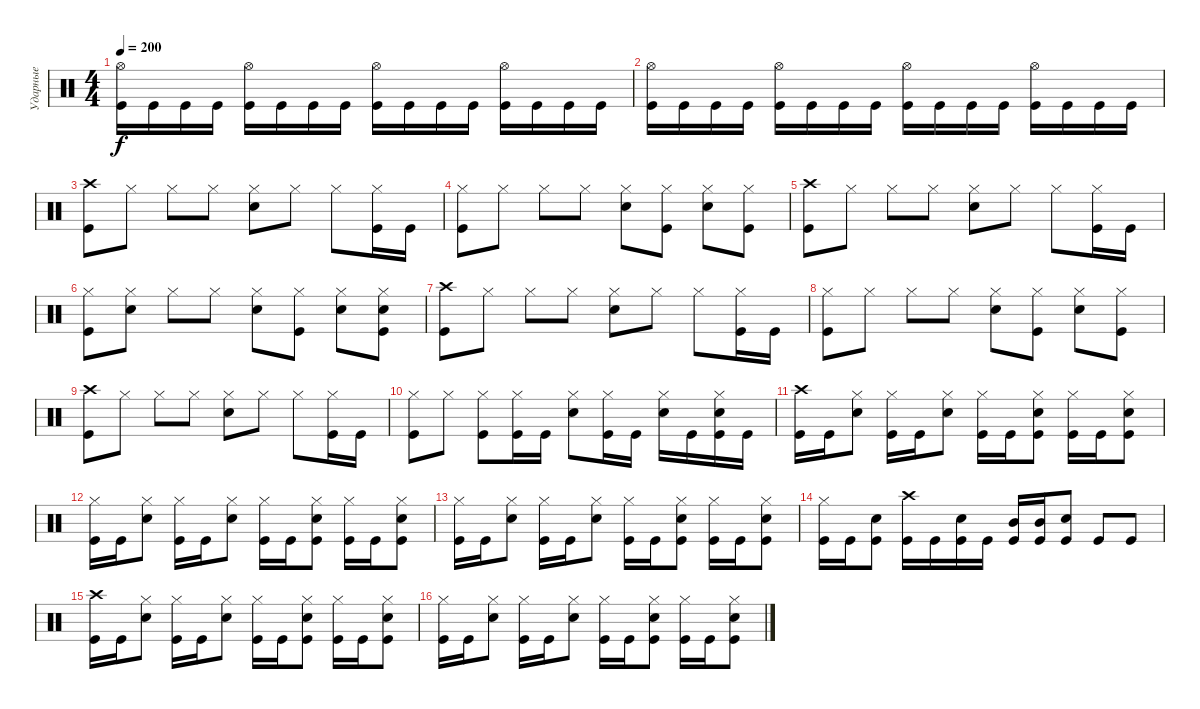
\track ("Ударные" "Ударные") {instrument percussion}
\staff {score}
\articulation defaults
\ts (4 4)
\tempo 200
\clef neutral
\ks c
("Hi-Hat (open)" "Kick (hit)").16{dy f} "Kick (hit)".16 "Kick (hit)".16 "Kick (hit)".16 ("Hi-Hat (open)" "Kick (hit)").16 "Kick (hit)".16 "Kick (hit)".16 "Kick (hit)".16 ("Hi-Hat (open)" "Kick (hit)").16 "Kick (hit)".16 "Kick (hit)".16 "Kick (hit)".16 ("Hi-Hat (open)" "Kick (hit)").16 "Kick (hit)".16 "Kick (hit)".16 "Kick (hit)".16 |
("Hi-Hat (open)" "Kick (hit)").16 "Kick (hit)".16 "Kick (hit)".16 "Kick (hit)".16 ("Hi-Hat (open)" "Kick (hit)").16 "Kick (hit)".16 "Kick (hit)".16 "Kick (hit)".16 ("Hi-Hat (open)" "Kick (hit)").16 "Kick (hit)".16 "Kick (hit)".16 "Kick (hit)".16 ("Hi-Hat (open)" "Kick (hit)").16 "Kick (hit)".16 "Kick (hit)".16 "Kick (hit)".16 |
("Crash high (hit)" "Kick (hit)").8 "Hi-Hat (closed)".8 "Hi-Hat (closed)".8 "Hi-Hat (closed)".8 ("Hi-Hat (closed)" "Electric Snare (hit)").8 "Hi-Hat (closed)".8 "Hi-Hat (closed)".8 ("Hi-Hat (closed)" "Kick (hit)").16 "Kick (hit)".16 |
("Hi-Hat (closed)" "Kick (hit)").8 "Hi-Hat (closed)".8 "Hi-Hat (closed)".8 "Hi-Hat (closed)".8 ("Hi-Hat (closed)" "Electric Snare (hit)").8 ("Hi-Hat (closed)" "Kick (hit)").8 ("Hi-Hat (closed)" "Electric Snare (hit)").8 ("Hi-Hat (closed)" "Kick (hit)").8 |
("Crash high (hit)" "Kick (hit)").8 "Hi-Hat (closed)".8 "Hi-Hat (closed)".8 "Hi-Hat (closed)".8 ("Hi-Hat (closed)" "Electric Snare (hit)").8 "Hi-Hat (closed)".8 "Hi-Hat (closed)".8 ("Hi-Hat (closed)" "Kick (hit)").16 "Kick (hit)".16 |
("Hi-Hat (closed)" "Kick (hit)").8 ("Hi-Hat (closed)" "Electric Snare (hit)").8 "Hi-Hat (closed)".8 "Hi-Hat (closed)".8 ("Hi-Hat (closed)" "Electric Snare (hit)").8 ("Hi-Hat (closed)" "Kick (hit)").8 ("Hi-Hat (closed)" "Electric Snare (hit)").8 ("Hi-Hat (closed)" "Electric Snare (hit)" "Kick (hit)").8 |
("Crash high (hit)" "Kick (hit)").8 "Hi-Hat (closed)".8 "Hi-Hat (closed)".8 "Hi-Hat (closed)".8 ("Hi-Hat (closed)" "Electric Snare (hit)").8 "Hi-Hat (closed)".8 "Hi-Hat (closed)".8 ("Hi-Hat (closed)" "Kick (hit)").16 "Kick (hit)".16 |
("Hi-Hat (closed)" "Kick (hit)").8 "Hi-Hat (closed)".8 "Hi-Hat (closed)".8 "Hi-Hat (closed)".8 ("Hi-Hat (closed)" "Electric Snare (hit)").8 ("Hi-Hat (closed)" "Kick (hit)").8 ("Hi-Hat (closed)" "Electric Snare (hit)").8 ("Hi-Hat (closed)" "Kick (hit)").8 |
("Crash high (hit)" "Kick (hit)").8 "Hi-Hat (closed)".8 "Hi-Hat (closed)".8 "Hi-Hat (closed)".8 ("Hi-Hat (closed)" "Electric Snare (hit)").8 "Hi-Hat (closed)".8 "Hi-Hat (closed)".8 ("Hi-Hat (closed)" "Kick (hit)").16 "Kick (hit)".16 |
("Hi-Hat (closed)" "Kick (hit)").8 "Hi-Hat (closed)".8 ("Hi-Hat (closed)" "Kick (hit)").8 ("Hi-Hat (closed)" "Kick (hit)").16 "Kick (hit)".16 ("Hi-Hat (closed)" "Electric Snare (hit)").8 ("Hi-Hat (closed)" "Kick (hit)").16 "Kick (hit)".16 ("Hi-Hat (closed)" "Electric Snare (hit)").16 "Kick (hit)".16 ("Hi-Hat (closed)" "Electric Snare (hit)" "Kick (hit)").16 "Kick (hit)".16 |
("Crash high (hit)" "Kick (hit)").16 "Kick (hit)".16 ("Hi-Hat (closed)" "Electric Snare (hit)").8 ("Hi-Hat (closed)" "Kick (hit)").16 "Kick (hit)".16 ("Hi-Hat (closed)" "Electric Snare (hit)").8 ("Hi-Hat (closed)" "Kick (hit)").16 "Kick (hit)".16 ("Hi-Hat (closed)" "Electric Snare (hit)" "Kick (hit)").8 ("Hi-Hat (closed)" "Kick (hit)").16 "Kick (hit)".16 ("Hi-Hat (closed)" "Electric Snare (hit)" "Kick (hit)").8 |
("Hi-Hat (closed)" "Kick (hit)").16 "Kick (hit)".16 ("Hi-Hat (closed)" "Electric Snare (hit)").8 ("Hi-Hat (closed)" "Kick (hit)").16 "Kick (hit)".16 ("Hi-Hat (closed)" "Electric Snare (hit)").8 ("Hi-Hat (closed)" "Kick (hit)").16 "Kick (hit)".16 ("Hi-Hat (closed)" "Electric Snare (hit)" "Kick (hit)").8 ("Hi-Hat (closed)" "Kick (hit)").16 "Kick (hit)".16 ("Hi-Hat (closed)" "Electric Snare (hit)" "Kick (hit)").8 |
("Hi-Hat (closed)" "Kick (hit)").16 "Kick (hit)".16 ("Hi-Hat (closed)" "Electric Snare (hit)").8 ("Hi-Hat (closed)" "Kick (hit)").16 "Kick (hit)".16 ("Hi-Hat (closed)" "Electric Snare (hit)").8 ("Hi-Hat (closed)" "Kick (hit)").16 "Kick (hit)".16 ("Hi-Hat (closed)" "Electric Snare (hit)" "Kick (hit)").8 ("Hi-Hat (closed)" "Kick (hit)").16 "Kick (hit)".16 ("Hi-Hat (closed)" "Electric Snare (hit)" "Kick (hit)").8 |
("Hi-Hat (closed)" "Kick (hit)").16 "Kick (hit)".16 ("Electric Snare (hit)" "Kick (hit)").8 ("Crash high (hit)" "Kick (hit)").16 "Kick (hit)".16 ("Electric Snare (hit)" "Kick (hit)").16 "Kick (hit)".16 ("Mid Tom (hit)" "Kick (hit)").16 ("Mid Tom (hit)" "Kick (hit)").16 ("Electric Snare (hit)" "Kick (hit)").8 "Kick (hit)".8 "Kick (hit)".8 |
("Crash high (hit)" "Kick (hit)").16 "Kick (hit)".16 ("Hi-Hat (closed)" "Electric Snare (hit)").8 ("Hi-Hat (closed)" "Kick (hit)").16 "Kick (hit)".16 ("Hi-Hat (closed)" "Electric Snare (hit)").8 ("Hi-Hat (closed)" "Kick (hit)").16 "Kick (hit)".16 ("Hi-Hat (closed)" "Electric Snare (hit)" "Kick (hit)").8 ("Hi-Hat (closed)" "Kick (hit)").16 "Kick (hit)".16 ("Hi-Hat (closed)" "Electric Snare (hit)" "Kick (hit)").8 |
("Hi-Hat (closed)" "Kick (hit)").16 "Kick (hit)".16 ("Hi-Hat (closed)" "Electric Snare (hit)").8 ("Hi-Hat (closed)" "Kick (hit)").16 "Kick (hit)".16 ("Hi-Hat (closed)" "Electric Snare (hit)").8 ("Hi-Hat (closed)" "Kick (hit)").16 "Kick (hit)".16 ("Hi-Hat (closed)" "Electric Snare (hit)" "Kick (hit)").8 ("Hi-Hat (closed)" "Kick (hit)").16 "Kick (hit)".16 ("Hi-Hat (closed)" "Electric Snare (hit)" "Kick (hit)").8
